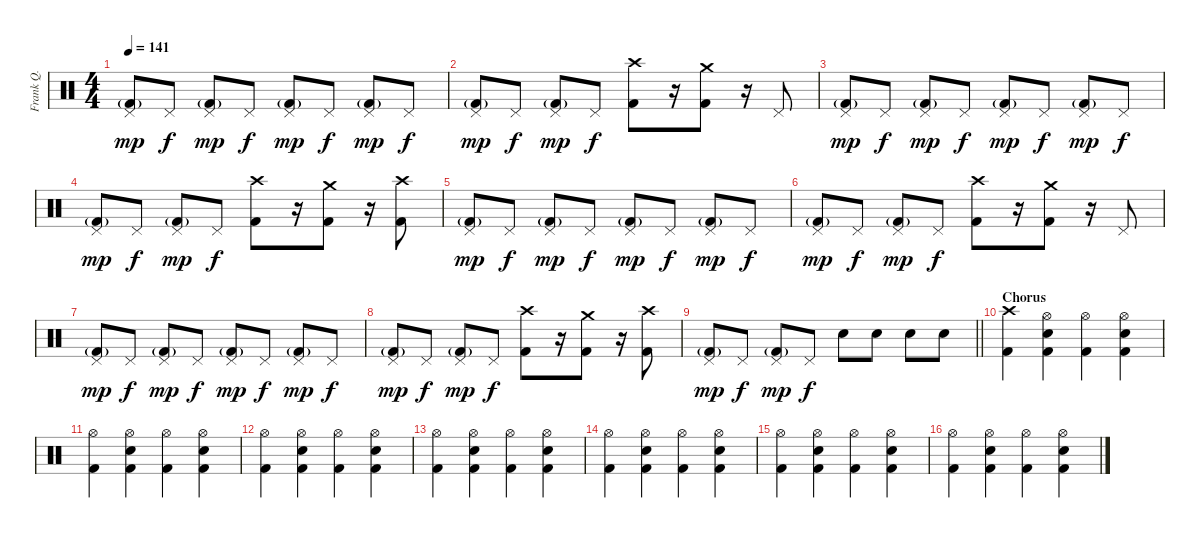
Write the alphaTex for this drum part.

\track ("Frank Q." "Frank Q.") {instrument percussion}
\staff {score}
\articulation defaults
\ts (4 4)
\tempo 141
\clef neutral
\ks c
("Pedal Hi-Hat (hit)" "Kick (hit) 2"{g}).8{dy mp} "Pedal Hi-Hat (hit)".8{dy f} ("Pedal Hi-Hat (hit)" "Kick (hit) 2"{g}).8{dy mp} "Pedal Hi-Hat (hit)".8{dy f} ("Pedal Hi-Hat (hit)" "Kick (hit) 2"{g}).8{dy mp} "Pedal Hi-Hat (hit)".8{dy f} ("Pedal Hi-Hat (hit)" "Kick (hit) 2"{g}).8{dy mp} "Pedal Hi-Hat (hit)".8{dy f} |
("Pedal Hi-Hat (hit)" "Kick (hit) 2"{g}).8{dy mp} "Pedal Hi-Hat (hit)".8{dy f} ("Pedal Hi-Hat (hit)" "Kick (hit) 2"{g}).8{dy mp} "Pedal Hi-Hat (hit)".8{dy f} ("Crash high (hit)" "Kick (hit) 2").8 r.16 ("Crash medium (hit)" "Kick (hit) 2").8 r.16 "Pedal Hi-Hat (hit)".8 |
("Pedal Hi-Hat (hit)" "Kick (hit) 2"{g}).8{dy mp} "Pedal Hi-Hat (hit)".8{dy f} ("Pedal Hi-Hat (hit)" "Kick (hit) 2"{g}).8{dy mp} "Pedal Hi-Hat (hit)".8{dy f} ("Pedal Hi-Hat (hit)" "Kick (hit) 2"{g}).8{dy mp} "Pedal Hi-Hat (hit)".8{dy f} ("Pedal Hi-Hat (hit)" "Kick (hit) 2"{g}).8{dy mp} "Pedal Hi-Hat (hit)".8{dy f} |
("Pedal Hi-Hat (hit)" "Kick (hit) 2"{g}).8{dy mp} "Pedal Hi-Hat (hit)".8{dy f} ("Pedal Hi-Hat (hit)" "Kick (hit) 2"{g}).8{dy mp} "Pedal Hi-Hat (hit)".8{dy f} ("Crash high (hit)" "Kick (hit) 2").8 r.16 ("Crash medium (hit)" "Kick (hit) 2").8 r.16 ("Crash high (hit)" "Kick (hit) 2").8 |
("Pedal Hi-Hat (hit)" "Kick (hit) 2"{g}).8{dy mp} "Pedal Hi-Hat (hit)".8{dy f} ("Pedal Hi-Hat (hit)" "Kick (hit) 2"{g}).8{dy mp} "Pedal Hi-Hat (hit)".8{dy f} ("Pedal Hi-Hat (hit)" "Kick (hit) 2"{g}).8{dy mp} "Pedal Hi-Hat (hit)".8{dy f} ("Pedal Hi-Hat (hit)" "Kick (hit) 2"{g}).8{dy mp} "Pedal Hi-Hat (hit)".8{dy f} |
("Pedal Hi-Hat (hit)" "Kick (hit) 2"{g}).8{dy mp} "Pedal Hi-Hat (hit)".8{dy f} ("Pedal Hi-Hat (hit)" "Kick (hit) 2"{g}).8{dy mp} "Pedal Hi-Hat (hit)".8{dy f} ("Crash high (hit)" "Kick (hit) 2").8 r.16 ("Crash medium (hit)" "Kick (hit) 2").8 r.16 "Pedal Hi-Hat (hit)".8 |
("Pedal Hi-Hat (hit)" "Kick (hit) 2"{g}).8{dy mp} "Pedal Hi-Hat (hit)".8{dy f} ("Pedal Hi-Hat (hit)" "Kick (hit) 2"{g}).8{dy mp} "Pedal Hi-Hat (hit)".8{dy f} ("Pedal Hi-Hat (hit)" "Kick (hit) 2"{g}).8{dy mp} "Pedal Hi-Hat (hit)".8{dy f} ("Pedal Hi-Hat (hit)" "Kick (hit) 2"{g}).8{dy mp} "Pedal Hi-Hat (hit)".8{dy f} |
("Pedal Hi-Hat (hit)" "Kick (hit) 2"{g}).8{dy mp} "Pedal Hi-Hat (hit)".8{dy f} ("Pedal Hi-Hat (hit)" "Kick (hit) 2"{g}).8{dy mp} "Pedal Hi-Hat (hit)".8{dy f} ("Crash high (hit)" "Kick (hit) 2").8 r.16 ("Crash medium (hit)" "Kick (hit) 2").8 r.16 ("Crash high (hit)" "Kick (hit) 2").8 |
\barLineRight lightlight
("Pedal Hi-Hat (hit)" "Kick (hit) 2"{g}).8{dy mp} "Pedal Hi-Hat (hit)".8{dy f} ("Pedal Hi-Hat (hit)" "Kick (hit) 2"{g}).8{dy mp} "Pedal Hi-Hat (hit)".8{dy f} "Electric Snare (hit)".8 "Electric Snare (hit)".8 "Electric Snare (hit)".8 "Electric Snare (hit)".8 |
\section ("" "Chorus")
("Crash high (hit)" "Kick (hit) 2").4 ("Hi-Hat (open)" "Electric Snare (hit)" "Kick (hit) 2").4 ("Hi-Hat (open)" "Kick (hit) 2").4 ("Hi-Hat (open)" "Electric Snare (hit)" "Kick (hit) 2").4 |
("Hi-Hat (open)" "Kick (hit) 2").4 ("Hi-Hat (open)" "Electric Snare (hit)" "Kick (hit) 2").4 ("Hi-Hat (open)" "Kick (hit) 2").4 ("Hi-Hat (open)" "Electric Snare (hit)" "Kick (hit) 2").4 |
("Hi-Hat (open)" "Kick (hit) 2").4 ("Hi-Hat (open)" "Electric Snare (hit)" "Kick (hit) 2").4 ("Hi-Hat (open)" "Kick (hit) 2").4 ("Hi-Hat (open)" "Electric Snare (hit)" "Kick (hit) 2").4 |
("Hi-Hat (open)" "Kick (hit) 2").4 ("Hi-Hat (open)" "Electric Snare (hit)" "Kick (hit) 2").4 ("Hi-Hat (open)" "Kick (hit) 2").4 ("Hi-Hat (open)" "Electric Snare (hit)" "Kick (hit) 2").4 |
("Hi-Hat (open)" "Kick (hit) 2").4 ("Hi-Hat (open)" "Electric Snare (hit)" "Kick (hit) 2").4 ("Hi-Hat (open)" "Kick (hit) 2").4 ("Hi-Hat (open)" "Electric Snare (hit)" "Kick (hit) 2").4 |
("Hi-Hat (open)" "Kick (hit) 2").4 ("Hi-Hat (open)" "Electric Snare (hit)" "Kick (hit) 2").4 ("Hi-Hat (open)" "Kick (hit) 2").4 ("Hi-Hat (open)" "Electric Snare (hit)" "Kick (hit) 2").4 |
("Hi-Hat (open)" "Kick (hit) 2").4 ("Hi-Hat (open)" "Electric Snare (hit)" "Kick (hit) 2").4 ("Hi-Hat (open)" "Kick (hit) 2").4 ("Hi-Hat (open)" "Electric Snare (hit)" "Kick (hit) 2").4
